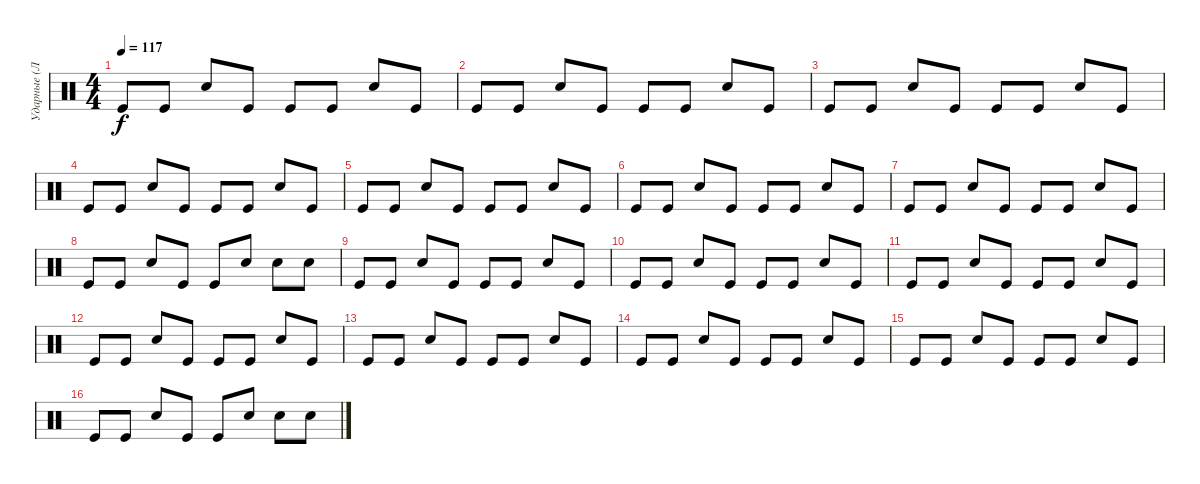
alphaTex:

\track ("Ударные (Летов)" "Ударные (Л") {instrument percussion}
\staff {score}
\articulation defaults
\ts (4 4)
\tempo 117
\clef neutral
\ks c "Kick (hit)".8{dy f} "Kick (hit)".8 "Snare (hit) 2".8 "Kick (hit)".8 "Kick (hit)".8 "Kick (hit)".8 "Snare (hit) 2".8 "Kick (hit)".8
|
"Kick (hit)".8 "Kick (hit)".8 "Snare (hit) 2".8 "Kick (hit)".8 "Kick (hit)".8 "Kick (hit)".8 "Snare (hit) 2".8 "Kick (hit)".8 |
"Kick (hit)".8 "Kick (hit)".8 "Snare (hit) 2".8 "Kick (hit)".8 "Kick (hit)".8 "Kick (hit)".8 "Snare (hit) 2".8 "Kick (hit)".8 |
"Kick (hit)".8 "Kick (hit)".8 "Snare (hit) 2".8 "Kick (hit)".8 "Kick (hit)".8 "Kick (hit)".8 "Snare (hit) 2".8 "Kick (hit)".8 |
"Kick (hit)".8 "Kick (hit)".8 "Snare (hit) 2".8 "Kick (hit)".8 "Kick (hit)".8 "Kick (hit)".8 "Snare (hit) 2".8 "Kick (hit)".8 |
"Kick (hit)".8 "Kick (hit)".8 "Snare (hit) 2".8 "Kick (hit)".8 "Kick (hit)".8 "Kick (hit)".8 "Snare (hit) 2".8 "Kick (hit)".8 |
"Kick (hit)".8 "Kick (hit)".8 "Snare (hit) 2".8 "Kick (hit)".8 "Kick (hit)".8 "Kick (hit)".8 "Snare (hit) 2".8 "Kick (hit)".8 |
"Kick (hit)".8 "Kick (hit)".8 "Snare (hit) 2".8 "Kick (hit)".8 "Kick (hit)".8 "Snare (hit) 2".8 "Snare (hit) 2".8 "Snare (hit) 2".8 |
"Kick (hit)".8 "Kick (hit)".8 "Snare (hit) 2".8 "Kick (hit)".8 "Kick (hit)".8 "Kick (hit)".8 "Snare (hit) 2".8 "Kick (hit)".8 |
"Kick (hit)".8 "Kick (hit)".8 "Snare (hit) 2".8 "Kick (hit)".8 "Kick (hit)".8 "Kick (hit)".8 "Snare (hit) 2".8 "Kick (hit)".8 |
"Kick (hit)".8 "Kick (hit)".8 "Snare (hit) 2".8 "Kick (hit)".8 "Kick (hit)".8 "Kick (hit)".8 "Snare (hit) 2".8 "Kick (hit)".8 |
"Kick (hit)".8 "Kick (hit)".8 "Snare (hit) 2".8 "Kick (hit)".8 "Kick (hit)".8 "Kick (hit)".8 "Snare (hit) 2".8 "Kick (hit)".8 |
"Kick (hit)".8 "Kick (hit)".8 "Snare (hit) 2".8 "Kick (hit)".8 "Kick (hit)".8 "Kick (hit)".8 "Snare (hit) 2".8 "Kick (hit)".8 |
"Kick (hit)".8 "Kick (hit)".8 "Snare (hit) 2".8 "Kick (hit)".8 "Kick (hit)".8 "Kick (hit)".8 "Snare (hit) 2".8 "Kick (hit)".8 |
"Kick (hit)".8 "Kick (hit)".8 "Snare (hit) 2".8 "Kick (hit)".8 "Kick (hit)".8 "Kick (hit)".8 "Snare (hit) 2".8 "Kick (hit)".8 |
"Kick (hit)".8 "Kick (hit)".8 "Snare (hit) 2".8 "Kick (hit)".8 "Kick (hit)".8 "Snare (hit) 2".8 "Snare (hit) 2".8 "Snare (hit) 2".8
